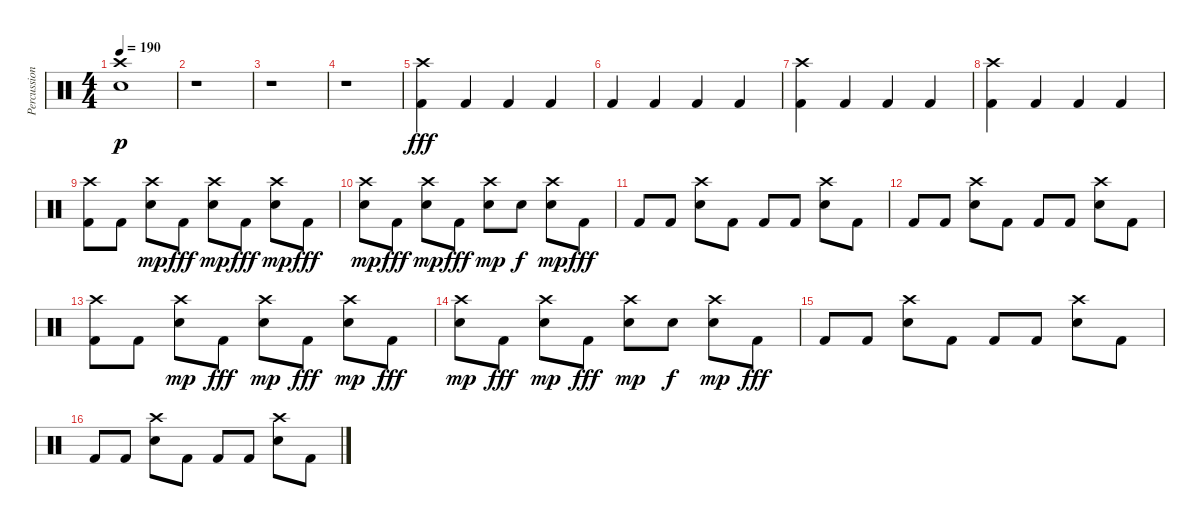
\track ("Percussion" "Percussion") {instrument percussion}
\staff {score}
\articulation defaults
\ts (4 4)
\tempo 190
\clef neutral
\ks c
("Crash high (hit)" "Electric Snare (hit)").1{dy p} |
r.1 |
r.1 |
r.1 |
("Crash high (hit)" "Kick (hit) 2").4{dy fff} "Kick (hit) 2".4 "Kick (hit) 2".4 "Kick (hit) 2".4 |
"Kick (hit) 2".4 "Kick (hit) 2".4 "Kick (hit) 2".4 "Kick (hit) 2".4 |
("Crash high (hit)" "Kick (hit) 2").4 "Kick (hit) 2".4 "Kick (hit) 2".4 "Kick (hit) 2".4 |
("Crash high (hit)" "Kick (hit) 2").4 "Kick (hit) 2".4 "Kick (hit) 2".4 "Kick (hit) 2".4 |
("Crash high (hit)" "Kick (hit) 2").8 "Kick (hit) 2".8 ("Crash high (hit)" "Electric Snare (hit)").8{dy mp} "Kick (hit) 2".8{dy fff} ("Crash high (hit)" "Electric Snare (hit)").8{dy mp} "Kick (hit) 2".8{dy fff} ("Crash high (hit)" "Electric Snare (hit)").8{dy mp} "Kick (hit) 2".8{dy fff} |
("Crash high (hit)" "Electric Snare (hit)").8{dy mp} "Kick (hit) 2".8{dy fff} ("Crash high (hit)" "Electric Snare (hit)").8{dy mp} "Kick (hit) 2".8{dy fff} ("Crash high (hit)" "Electric Snare (hit)").8{dy mp} "Electric Snare (hit)".8{dy f} ("Crash high (hit)" "Electric Snare (hit)").8{dy mp} "Kick (hit) 2".8{dy fff} |
"Kick (hit) 2".8 "Kick (hit) 2".8 ("Crash high (hit)" "Electric Snare (hit)").8 "Kick (hit) 2".8 "Kick (hit) 2".8 "Kick (hit) 2".8 ("Crash high (hit)" "Electric Snare (hit)").8 "Kick (hit) 2".8 |
"Kick (hit) 2".8 "Kick (hit) 2".8 ("Crash high (hit)" "Electric Snare (hit)").8 "Kick (hit) 2".8 "Kick (hit) 2".8 "Kick (hit) 2".8 ("Crash high (hit)" "Electric Snare (hit)").8 "Kick (hit) 2".8 |
("Crash high (hit)" "Kick (hit) 2").8 "Kick (hit) 2".8 ("Crash high (hit)" "Electric Snare (hit)").8{dy mp} "Kick (hit) 2".8{dy fff} ("Crash high (hit)" "Electric Snare (hit)").8{dy mp} "Kick (hit) 2".8{dy fff} ("Crash high (hit)" "Electric Snare (hit)").8{dy mp} "Kick (hit) 2".8{dy fff} |
("Crash high (hit)" "Electric Snare (hit)").8{dy mp} "Kick (hit) 2".8{dy fff} ("Crash high (hit)" "Electric Snare (hit)").8{dy mp} "Kick (hit) 2".8{dy fff} ("Crash high (hit)" "Electric Snare (hit)").8{dy mp} "Electric Snare (hit)".8{dy f} ("Crash high (hit)" "Electric Snare (hit)").8{dy mp} "Kick (hit) 2".8{dy fff} |
"Kick (hit) 2".8 "Kick (hit) 2".8 ("Crash high (hit)" "Electric Snare (hit)").8 "Kick (hit) 2".8 "Kick (hit) 2".8 "Kick (hit) 2".8 ("Crash high (hit)" "Electric Snare (hit)").8 "Kick (hit) 2".8 |
"Kick (hit) 2".8 "Kick (hit) 2".8 ("Crash high (hit)" "Electric Snare (hit)").8 "Kick (hit) 2".8 "Kick (hit) 2".8 "Kick (hit) 2".8 ("Crash high (hit)" "Electric Snare (hit)").8 "Kick (hit) 2".8
